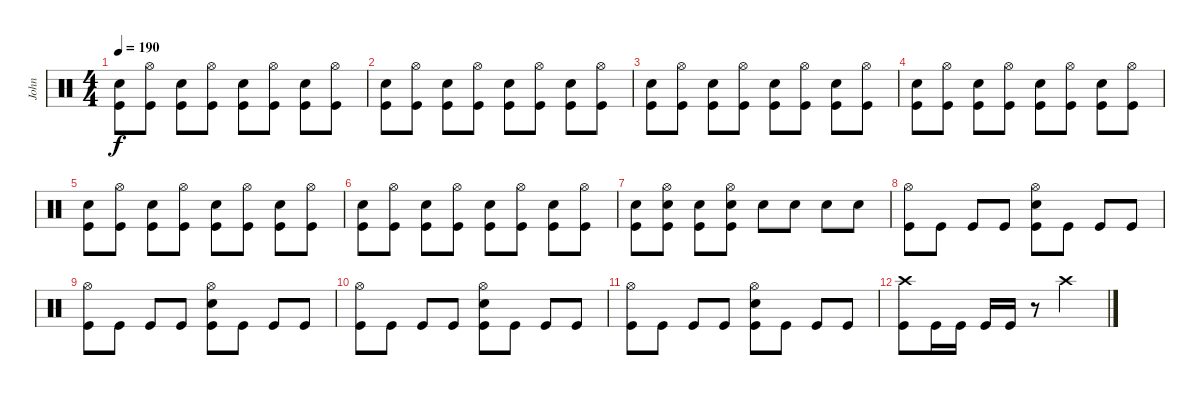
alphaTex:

\track ("John" "John") {instrument percussion}
\staff {score}
\articulation defaults
\ts (4 4)
\tempo 190
\clef neutral
\ks c
("Kick (hit)" "Snare (hit) 2").8{dy f} ("Kick (hit)" "Hi-Hat (open)").8 ("Kick (hit)" "Snare (hit) 2").8 ("Kick (hit)" "Hi-Hat (open)").8 ("Kick (hit)" "Snare (hit) 2").8 ("Kick (hit)" "Hi-Hat (open)").8 ("Kick (hit)" "Snare (hit) 2").8 ("Kick (hit)" "Hi-Hat (open)").8 |
("Kick (hit)" "Snare (hit) 2").8 ("Kick (hit)" "Hi-Hat (open)").8 ("Kick (hit)" "Snare (hit) 2").8 ("Kick (hit)" "Hi-Hat (open)").8 ("Kick (hit)" "Snare (hit) 2").8 ("Kick (hit)" "Hi-Hat (open)").8 ("Kick (hit)" "Snare (hit) 2").8 ("Kick (hit)" "Hi-Hat (open)").8 |
("Kick (hit)" "Snare (hit) 2").8 ("Kick (hit)" "Hi-Hat (open)").8 ("Kick (hit)" "Snare (hit) 2").8 ("Kick (hit)" "Hi-Hat (open)").8 ("Kick (hit)" "Snare (hit) 2").8 ("Kick (hit)" "Hi-Hat (open)").8 ("Kick (hit)" "Snare (hit) 2").8 ("Kick (hit)" "Hi-Hat (open)").8 |
("Kick (hit)" "Snare (hit) 2").8 ("Kick (hit)" "Hi-Hat (open)").8 ("Kick (hit)" "Snare (hit) 2").8 ("Kick (hit)" "Hi-Hat (open)").8 ("Kick (hit)" "Snare (hit) 2").8 ("Kick (hit)" "Hi-Hat (open)").8 ("Kick (hit)" "Snare (hit) 2").8 ("Kick (hit)" "Hi-Hat (open)").8 |
("Kick (hit)" "Snare (hit) 2").8 ("Kick (hit)" "Hi-Hat (open)").8 ("Kick (hit)" "Snare (hit) 2").8 ("Kick (hit)" "Hi-Hat (open)").8 ("Kick (hit)" "Snare (hit) 2").8 ("Kick (hit)" "Hi-Hat (open)").8 ("Kick (hit)" "Snare (hit) 2").8 ("Kick (hit)" "Hi-Hat (open)").8 |
("Kick (hit)" "Snare (hit) 2").8 ("Kick (hit)" "Hi-Hat (open)").8 ("Kick (hit)" "Snare (hit) 2").8 ("Kick (hit)" "Hi-Hat (open)").8 ("Kick (hit)" "Snare (hit) 2").8 ("Kick (hit)" "Hi-Hat (open)").8 ("Kick (hit)" "Snare (hit) 2").8 ("Kick (hit)" "Hi-Hat (open)").8 |
("Kick (hit)" "Snare (hit) 2").8 ("Kick (hit)" "Snare (hit) 2" "Hi-Hat (open)").8 ("Kick (hit)" "Snare (hit) 2").8 ("Kick (hit)" "Snare (hit) 2" "Hi-Hat (open)").8 "Snare (hit) 2".8 "Snare (hit) 2".8 "Snare (hit) 2".8 "Snare (hit) 2".8 |
("Kick (hit)" "Hi-Hat (open)").8 "Kick (hit)".8 "Kick (hit)".8 "Kick (hit)".8 ("Kick (hit)" "Snare (hit) 2" "Hi-Hat (open)").8 "Kick (hit)".8 "Kick (hit)".8 "Kick (hit)".8 |
("Kick (hit)" "Hi-Hat (open)").8 "Kick (hit)".8 "Kick (hit)".8 "Kick (hit)".8 ("Kick (hit)" "Snare (hit) 2" "Hi-Hat (open)").8 "Kick (hit)".8 "Kick (hit)".8 "Kick (hit)".8 |
("Kick (hit)" "Hi-Hat (open)").8 "Kick (hit)".8 "Kick (hit)".8 "Kick (hit)".8 ("Kick (hit)" "Snare (hit) 2" "Hi-Hat (open)").8 "Kick (hit)".8 "Kick (hit)".8 "Kick (hit)".8 |
("Kick (hit)" "Hi-Hat (open)").8 "Kick (hit)".8 "Kick (hit)".8 "Kick (hit)".8 ("Kick (hit)" "Snare (hit) 2" "Hi-Hat (open)").8 "Kick (hit)".8 "Kick (hit)".8 "Kick (hit)".8 |
("Crash high (hit)" "Kick (hit)").8 "Kick (hit)".16 "Kick (hit)".16 "Kick (hit)".16 "Kick (hit)".16 r.8 "Crash high (hit)".2
